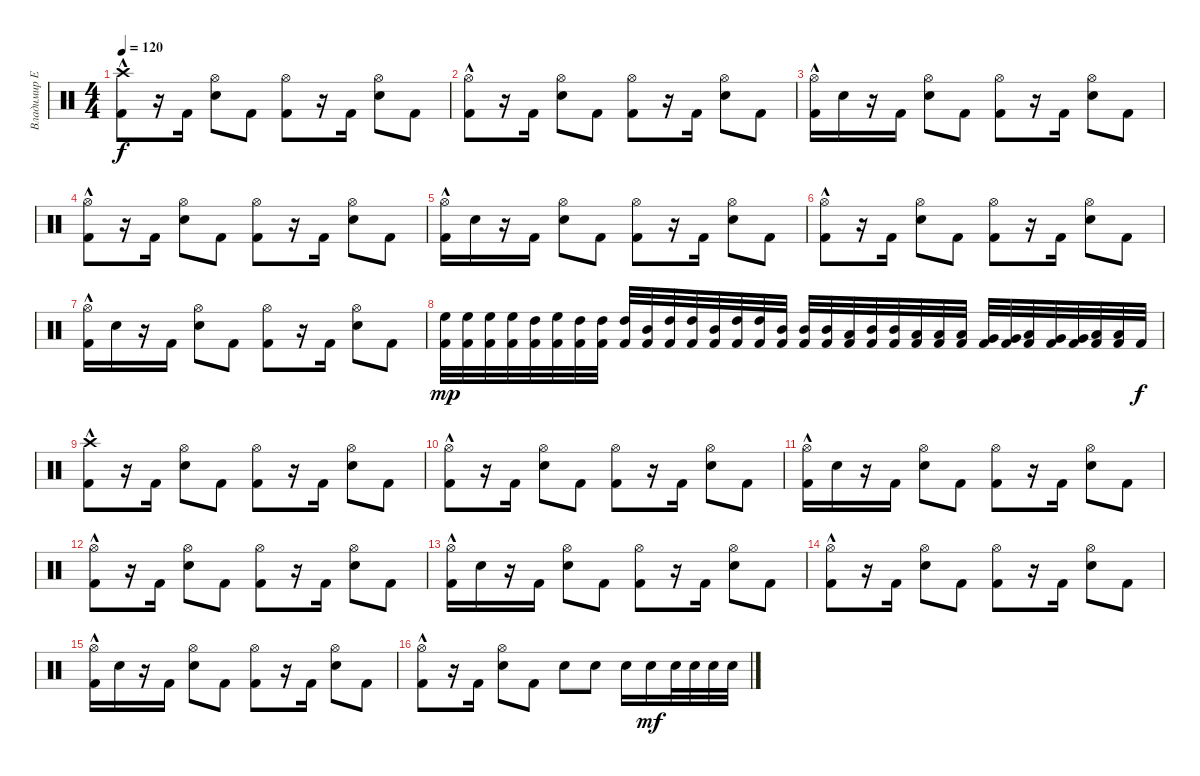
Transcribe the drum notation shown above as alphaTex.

\track ("Владимир Ермаков" "Владимир Е") {instrument percussion}
\staff {score}
\articulation defaults
\ts (4 4)
\tempo 120
\clef neutral
\ks c
("Crash high (hit)" "Kick (hit) 2"{hac}).8{dy f} r.16 "Kick (hit) 2".16 ("Hi-Hat (open)" "Electric Snare (hit)").8 "Kick (hit) 2".8 ("Hi-Hat (open)" "Kick (hit) 2").8 r.16 "Kick (hit) 2".16 ("Hi-Hat (open)" "Electric Snare (hit)").8 "Kick (hit) 2".8 |
("Hi-Hat (open)" "Kick (hit) 2"{hac}).8 r.16 "Kick (hit) 2".16 ("Hi-Hat (open)" "Electric Snare (hit)").8 "Kick (hit) 2".8 ("Hi-Hat (open)" "Kick (hit) 2").8 r.16 "Kick (hit) 2".16 ("Hi-Hat (open)" "Electric Snare (hit)").8 "Kick (hit) 2".8 |
("Hi-Hat (open)" "Kick (hit) 2"{hac}).16 "Electric Snare (hit)".16 r.16 "Kick (hit) 2".16 ("Hi-Hat (open)" "Electric Snare (hit)").8 "Kick (hit) 2".8 ("Hi-Hat (open)" "Kick (hit) 2").8 r.16 "Kick (hit) 2".16 ("Hi-Hat (open)" "Electric Snare (hit)").8 "Kick (hit) 2".8 |
("Hi-Hat (open)" "Kick (hit) 2"{hac}).8 r.16 "Kick (hit) 2".16 ("Hi-Hat (open)" "Electric Snare (hit)").8 "Kick (hit) 2".8 ("Hi-Hat (open)" "Kick (hit) 2").8 r.16 "Kick (hit) 2".16 ("Hi-Hat (open)" "Electric Snare (hit)").8 "Kick (hit) 2".8 |
("Hi-Hat (open)" "Kick (hit) 2"{hac}).16 "Electric Snare (hit)".16 r.16 "Kick (hit) 2".16 ("Hi-Hat (open)" "Electric Snare (hit)").8 "Kick (hit) 2".8 ("Hi-Hat (open)" "Kick (hit) 2").8 r.16 "Kick (hit) 2".16 ("Hi-Hat (open)" "Electric Snare (hit)").8 "Kick (hit) 2".8 |
("Hi-Hat (open)" "Kick (hit) 2"{hac}).8 r.16 "Kick (hit) 2".16 ("Hi-Hat (open)" "Electric Snare (hit)").8 "Kick (hit) 2".8 ("Hi-Hat (open)" "Kick (hit) 2").8 r.16 "Kick (hit) 2".16 ("Hi-Hat (open)" "Electric Snare (hit)").8 "Kick (hit) 2".8 |
("Hi-Hat (open)" "Kick (hit) 2"{hac}).16 "Electric Snare (hit)".16 r.16 "Kick (hit) 2".16 ("Hi-Hat (open)" "Electric Snare (hit)").8 "Kick (hit) 2".8 ("Hi-Hat (open)" "Kick (hit) 2").8 r.16 "Kick (hit) 2".16 ("Hi-Hat (open)" "Electric Snare (hit)").8 "Kick (hit) 2".8 |
("Kick (hit) 2" "High Floor Tom (hit)").32{dy mp} ("Kick (hit) 2" "High Floor Tom (hit)").32 ("Kick (hit) 2" "High Floor Tom (hit)").32 ("Kick (hit) 2" "High Floor Tom (hit)").32 ("Kick (hit) 2" "High Tom (hit)").32 ("Kick (hit) 2" "High Floor Tom (hit)").32 ("Kick (hit) 2" "High Tom (hit)").32 ("Kick (hit) 2" "High Tom (hit)").32 ("Kick (hit) 2" "High Tom (hit)").32 ("Kick (hit) 2" "Mid Tom (hit)").32 ("Kick (hit) 2" "High Tom (hit)").32 ("Kick (hit) 2" "High Tom (hit)").32 ("Kick (hit) 2" "Mid Tom (hit)").32 ("Kick (hit) 2" "High Tom (hit)").32 ("Kick (hit) 2" "High Tom (hit)").32 ("Kick (hit) 2" "Mid Tom (hit)").32 ("Kick (hit) 2" "Mid Tom (hit)").32 ("Kick (hit) 2" "Mid Tom (hit)").32 ("Kick (hit) 2" "Low Tom (hit)").32 ("Kick (hit) 2" "Mid Tom (hit)").32 ("Kick (hit) 2" "Mid Tom (hit)").32 ("Kick (hit) 2" "Low Tom (hit)").32 ("Kick (hit) 2" "Low Tom (hit)").32 ("Kick (hit) 2" "Low Tom (hit)").32 ("Kick (hit) 2" "Very Low Tom (hit)").32 ("Kick (hit) 2" "Very Low Tom (hit)").32 ("Kick (hit) 2" "Low Tom (hit)").32 ("Kick (hit) 2" "Very Low Tom (hit)").32 ("Kick (hit) 2" "Very Low Tom (hit)").32 ("Kick (hit) 2" "Low Floor Tom (hit)").32 ("Kick (hit) 2" "Low Floor Tom (hit)").32 "Kick (hit) 2".32{dy f} |
("Crash high (hit)" "Kick (hit) 2"{hac}).8 r.16 "Kick (hit) 2".16 ("Hi-Hat (open)" "Electric Snare (hit)").8 "Kick (hit) 2".8 ("Hi-Hat (open)" "Kick (hit) 2").8 r.16 "Kick (hit) 2".16 ("Hi-Hat (open)" "Electric Snare (hit)").8 "Kick (hit) 2".8 |
("Hi-Hat (open)" "Kick (hit) 2"{hac}).8 r.16 "Kick (hit) 2".16 ("Hi-Hat (open)" "Electric Snare (hit)").8 "Kick (hit) 2".8 ("Hi-Hat (open)" "Kick (hit) 2").8 r.16 "Kick (hit) 2".16 ("Hi-Hat (open)" "Electric Snare (hit)").8 "Kick (hit) 2".8 |
("Hi-Hat (open)" "Kick (hit) 2"{hac}).16 "Electric Snare (hit)".16 r.16 "Kick (hit) 2".16 ("Hi-Hat (open)" "Electric Snare (hit)").8 "Kick (hit) 2".8 ("Hi-Hat (open)" "Kick (hit) 2").8 r.16 "Kick (hit) 2".16 ("Hi-Hat (open)" "Electric Snare (hit)").8 "Kick (hit) 2".8 |
("Hi-Hat (open)" "Kick (hit) 2"{hac}).8 r.16 "Kick (hit) 2".16 ("Hi-Hat (open)" "Electric Snare (hit)").8 "Kick (hit) 2".8 ("Hi-Hat (open)" "Kick (hit) 2").8 r.16 "Kick (hit) 2".16 ("Hi-Hat (open)" "Electric Snare (hit)").8 "Kick (hit) 2".8 |
("Hi-Hat (open)" "Kick (hit) 2"{hac}).16 "Electric Snare (hit)".16 r.16 "Kick (hit) 2".16 ("Hi-Hat (open)" "Electric Snare (hit)").8 "Kick (hit) 2".8 ("Hi-Hat (open)" "Kick (hit) 2").8 r.16 "Kick (hit) 2".16 ("Hi-Hat (open)" "Electric Snare (hit)").8 "Kick (hit) 2".8 |
("Hi-Hat (open)" "Kick (hit) 2"{hac}).8 r.16 "Kick (hit) 2".16 ("Hi-Hat (open)" "Electric Snare (hit)").8 "Kick (hit) 2".8 ("Hi-Hat (open)" "Kick (hit) 2").8 r.16 "Kick (hit) 2".16 ("Hi-Hat (open)" "Electric Snare (hit)").8 "Kick (hit) 2".8 |
("Hi-Hat (open)" "Kick (hit) 2"{hac}).16 "Electric Snare (hit)".16 r.16 "Kick (hit) 2".16 ("Hi-Hat (open)" "Electric Snare (hit)").8 "Kick (hit) 2".8 ("Hi-Hat (open)" "Kick (hit) 2").8 r.16 "Kick (hit) 2".16 ("Hi-Hat (open)" "Electric Snare (hit)").8 "Kick (hit) 2".8 |
("Hi-Hat (open)" "Kick (hit) 2"{hac}).8 r.16 "Kick (hit) 2".16 ("Hi-Hat (open)" "Electric Snare (hit)").8 "Kick (hit) 2".8 "Electric Snare (hit)".8 "Electric Snare (hit)".8 "Electric Snare (hit)".16 "Electric Snare (hit)".16{dy mf} "Electric Snare (hit)".32 "Electric Snare (hit)".32 "Electric Snare (hit)".32 "Electric Snare (hit)".32
